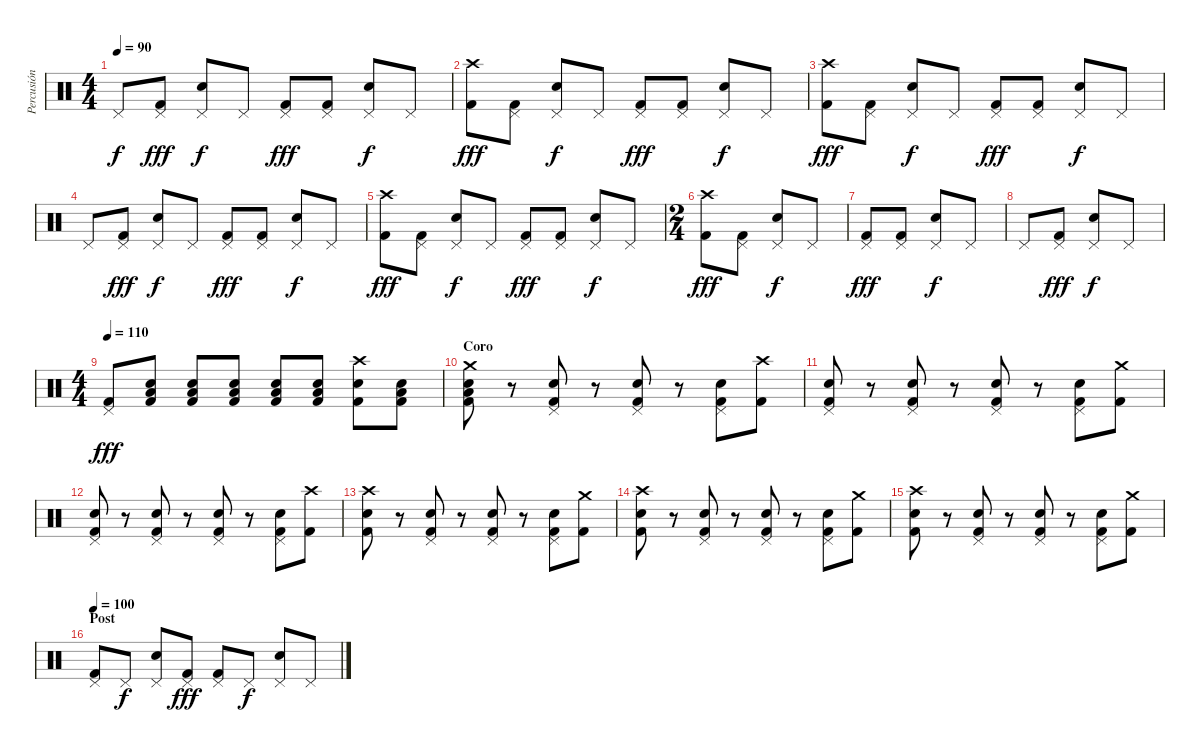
\track ("Percusión" "Percusión") {instrument percussion}
\staff {score}
\articulation defaults
\ts (4 4)
\tempo 90
\clef neutral
\ks c "Pedal Hi-Hat (hit)".8{dy f}
("Pedal Hi-Hat (hit)" "Kick (hit) 2").8{dy fff} ("Pedal Hi-Hat (hit)" "Snare (hit) 2").8{dy f} "Pedal Hi-Hat (hit)".8 ("Pedal Hi-Hat (hit)" "Kick (hit) 2").8{dy fff} ("Pedal Hi-Hat (hit)" "Kick (hit) 2").8 ("Pedal Hi-Hat (hit)" "Snare (hit) 2").8{dy f} "Pedal Hi-Hat (hit)".8 |
("Crash high (hit)" "Kick (hit) 2").8{dy fff balance 12} ("Pedal Hi-Hat (hit)" "Kick (hit) 2").8{balance 8} ("Pedal Hi-Hat (hit)" "Snare (hit) 2").8{dy f} "Pedal Hi-Hat (hit)".8 ("Pedal Hi-Hat (hit)" "Kick (hit) 2").8{dy fff} ("Pedal Hi-Hat (hit)" "Kick (hit) 2").8 ("Pedal Hi-Hat (hit)" "Snare (hit) 2").8{dy f} "Pedal Hi-Hat (hit)".8 |
("Crash high (hit)" "Kick (hit) 2").8{dy fff balance 4} ("Pedal Hi-Hat (hit)" "Kick (hit) 2").8{balance 8} ("Pedal Hi-Hat (hit)" "Snare (hit) 2").8{dy f} "Pedal Hi-Hat (hit)".8 ("Pedal Hi-Hat (hit)" "Kick (hit) 2").8{dy fff} ("Pedal Hi-Hat (hit)" "Kick (hit) 2").8 ("Pedal Hi-Hat (hit)" "Snare (hit) 2").8{dy f} "Pedal Hi-Hat (hit)".8 |
"Pedal Hi-Hat (hit)".8 ("Pedal Hi-Hat (hit)" "Kick (hit) 2").8{dy fff} ("Pedal Hi-Hat (hit)" "Snare (hit) 2").8{dy f} "Pedal Hi-Hat (hit)".8 ("Pedal Hi-Hat (hit)" "Kick (hit) 2").8{dy fff} ("Pedal Hi-Hat (hit)" "Kick (hit) 2").8 ("Pedal Hi-Hat (hit)" "Snare (hit) 2").8{dy f} "Pedal Hi-Hat (hit)".8 |
("Crash high (hit)" "Kick (hit) 2").8{dy fff balance 12} ("Pedal Hi-Hat (hit)" "Kick (hit) 2").8{balance 8} ("Pedal Hi-Hat (hit)" "Snare (hit) 2").8{dy f} "Pedal Hi-Hat (hit)".8 ("Pedal Hi-Hat (hit)" "Kick (hit) 2").8{dy fff} ("Pedal Hi-Hat (hit)" "Kick (hit) 2").8 ("Pedal Hi-Hat (hit)" "Snare (hit) 2").8{dy f} "Pedal Hi-Hat (hit)".8 |
\ts (2 4)
("Crash high (hit)" "Kick (hit) 2").8{dy fff balance 4} ("Pedal Hi-Hat (hit)" "Kick (hit) 2").8{balance 8} ("Pedal Hi-Hat (hit)" "Snare (hit) 2").8{dy f} "Pedal Hi-Hat (hit)".8 |
("Pedal Hi-Hat (hit)" "Kick (hit) 2").8{dy fff} ("Pedal Hi-Hat (hit)" "Kick (hit) 2").8 ("Pedal Hi-Hat (hit)" "Snare (hit) 2").8{dy f} "Pedal Hi-Hat (hit)".8 |
"Pedal Hi-Hat (hit)".8 ("Pedal Hi-Hat (hit)" "Kick (hit) 2").8{dy fff} ("Pedal Hi-Hat (hit)" "Snare (hit) 2").8{dy f} "Pedal Hi-Hat (hit)".8 |
\ts (4 4)
\tempo 110
("Pedal Hi-Hat (hit)" "Kick (hit) 2").8{dy fff} ("Low Floor Tom (hit)" "Kick (hit) 2" "Snare (hit) 2").8{volume 14} ("Low Floor Tom (hit)" "Kick (hit) 2" "Snare (hit) 2").8 ("Low Floor Tom (hit)" "Kick (hit) 2" "Snare (hit) 2").8 ("Low Floor Tom (hit)" "Kick (hit) 2" "Snare (hit) 2").8 ("Low Floor Tom (hit)" "Kick (hit) 2" "Snare (hit) 2").8 ("Crash high (hit)" "Kick (hit) 2" "Snare (hit) 2").8 ("Low Floor Tom (hit)" "Kick (hit) 2" "Snare (hit) 2").8 |
\section ("" "Coro")
("Low Floor Tom (hit)" "Kick (hit) 2" "Snare (hit) 2" "Crash medium (hit)").8 r.8 ("Kick (hit) 2" "Snare (hit) 2" "Pedal Hi-Hat (hit)").8 r.8 ("Kick (hit) 2" "Snare (hit) 2" "Pedal Hi-Hat (hit)").8 r.8 ("Kick (hit) 2" "Snare (hit) 2" "Pedal Hi-Hat (hit)").8 ("Kick (hit) 2" "Crash high (hit)").8 |
("Kick (hit) 2" "Snare (hit) 2" "Pedal Hi-Hat (hit)").8 r.8 ("Kick (hit) 2" "Snare (hit) 2" "Pedal Hi-Hat (hit)").8 r.8 ("Kick (hit) 2" "Snare (hit) 2" "Pedal Hi-Hat (hit)").8 r.8 ("Kick (hit) 2" "Snare (hit) 2" "Pedal Hi-Hat (hit)").8 ("Crash medium (hit)" "Kick (hit) 2").8 |
("Kick (hit) 2" "Snare (hit) 2" "Pedal Hi-Hat (hit)").8 r.8 ("Kick (hit) 2" "Snare (hit) 2" "Pedal Hi-Hat (hit)").8 r.8 ("Kick (hit) 2" "Snare (hit) 2" "Pedal Hi-Hat (hit)").8 r.8 ("Kick (hit) 2" "Snare (hit) 2" "Pedal Hi-Hat (hit)").8 ("Crash high (hit)" "Kick (hit) 2").8 |
("Kick (hit) 2" "Snare (hit) 2" "Crash high (hit)").8 r.8 ("Kick (hit) 2" "Snare (hit) 2" "Pedal Hi-Hat (hit)").8 r.8 ("Kick (hit) 2" "Snare (hit) 2" "Pedal Hi-Hat (hit)").8 r.8 ("Kick (hit) 2" "Snare (hit) 2" "Pedal Hi-Hat (hit)").8 ("Crash medium (hit)" "Kick (hit) 2").8 |
("Kick (hit) 2" "Snare (hit) 2" "Crash high (hit)").8 r.8 ("Kick (hit) 2" "Snare (hit) 2" "Pedal Hi-Hat (hit)").8 r.8 ("Kick (hit) 2" "Snare (hit) 2" "Pedal Hi-Hat (hit)").8 r.8 ("Kick (hit) 2" "Snare (hit) 2" "Pedal Hi-Hat (hit)").8 ("Crash medium (hit)" "Kick (hit) 2").8 |
("Kick (hit) 2" "Snare (hit) 2" "Crash high (hit)").8 r.8 ("Kick (hit) 2" "Snare (hit) 2" "Pedal Hi-Hat (hit)").8 r.8 ("Kick (hit) 2" "Snare (hit) 2" "Pedal Hi-Hat (hit)").8 r.8 ("Kick (hit) 2" "Snare (hit) 2" "Pedal Hi-Hat (hit)").8 ("Crash medium (hit)" "Kick (hit) 2").8 |
\section ("" "Post")
\tempo 100
("Pedal Hi-Hat (hit)" "Kick (hit) 2").8{volume 8} "Pedal Hi-Hat (hit)".8{dy f} ("Pedal Hi-Hat (hit)" "Snare (hit) 2").8 ("Pedal Hi-Hat (hit)" "Kick (hit) 2").8{dy fff} ("Pedal Hi-Hat (hit)" "Kick (hit) 2").8 "Pedal Hi-Hat (hit)".8{dy f} ("Pedal Hi-Hat (hit)" "Snare (hit) 2").8 "Pedal Hi-Hat (hit)".8
